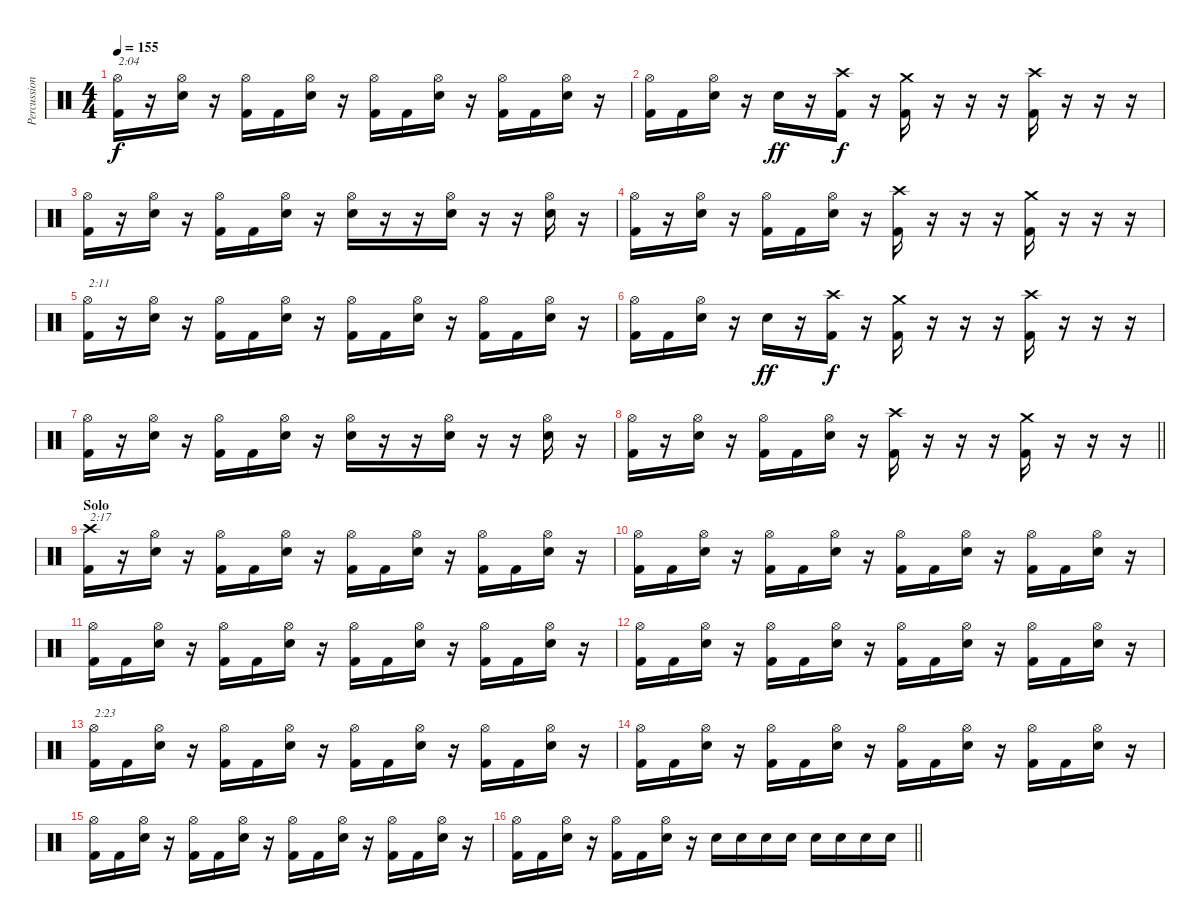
\track ("Percussion" "Percussion") {instrument percussion}
\staff {score}
\articulation defaults
\ts (4 4)
\tempo 155
\clef neutral
\ks c
("Hi-Hat (open)" "Kick (hit) 2").16{txt "2:04" dy f} r.16 ("Hi-Hat (open)" "Snare (hit) 2").16 r.16 ("Hi-Hat (open)" "Kick (hit) 2").16 "Kick (hit) 2".16 ("Hi-Hat (open)" "Snare (hit) 2").16 r.16 ("Hi-Hat (open)" "Kick (hit) 2").16 "Kick (hit) 2".16 ("Hi-Hat (open)" "Snare (hit) 2").16 r.16 ("Hi-Hat (open)" "Kick (hit) 2").16 "Kick (hit) 2".16 ("Hi-Hat (open)" "Snare (hit) 2").16 r.16 |
("Hi-Hat (open)" "Kick (hit) 2").16 "Kick (hit) 2".16 ("Hi-Hat (open)" "Snare (hit) 2").16 r.16 "Snare (hit) 2".16{dy ff} r.16 ("Crash high (hit)" "Kick (hit) 2").16{dy f} r.16 ("Crash medium (hit)" "Kick (hit) 2").16 r.16 r.16 r.16 ("Crash high (hit)" "Kick (hit) 2").16 r.16 r.16 r.16 |
("Hi-Hat (open)" "Kick (hit) 2").16 r.16 ("Hi-Hat (open)" "Snare (hit) 2").16 r.16 ("Hi-Hat (open)" "Kick (hit) 2").16 "Kick (hit) 2".16 ("Hi-Hat (open)" "Snare (hit) 2").16 r.16 ("Hi-Hat (open)" "Snare (hit) 2").16 r.16 r.16 ("Hi-Hat (open)" "Snare (hit) 2").16 r.16 r.16 ("Hi-Hat (open)" "Snare (hit) 2").16 r.16 |
("Hi-Hat (open)" "Kick (hit) 2").16 r.16 ("Hi-Hat (open)" "Snare (hit) 2").16 r.16 ("Hi-Hat (open)" "Kick (hit) 2").16 "Kick (hit) 2".16 ("Hi-Hat (open)" "Snare (hit) 2").16 r.16 ("Crash high (hit)" "Kick (hit) 2").16 r.16 r.16 r.16 ("Crash medium (hit)" "Kick (hit) 2").16 r.16 r.16 r.16 |
("Hi-Hat (open)" "Kick (hit) 2").16{txt "2:11"} r.16 ("Hi-Hat (open)" "Snare (hit) 2").16 r.16 ("Hi-Hat (open)" "Kick (hit) 2").16 "Kick (hit) 2".16 ("Hi-Hat (open)" "Snare (hit) 2").16 r.16 ("Hi-Hat (open)" "Kick (hit) 2").16 "Kick (hit) 2".16 ("Hi-Hat (open)" "Snare (hit) 2").16 r.16 ("Hi-Hat (open)" "Kick (hit) 2").16 "Kick (hit) 2".16 ("Hi-Hat (open)" "Snare (hit) 2").16 r.16 |
("Hi-Hat (open)" "Kick (hit) 2").16 "Kick (hit) 2".16 ("Hi-Hat (open)" "Snare (hit) 2").16 r.16 "Snare (hit) 2".16{dy ff} r.16 ("Crash high (hit)" "Kick (hit) 2").16{dy f} r.16 ("Crash medium (hit)" "Kick (hit) 2").16 r.16 r.16 r.16 ("Crash high (hit)" "Kick (hit) 2").16 r.16 r.16 r.16 |
("Hi-Hat (open)" "Kick (hit) 2").16 r.16 ("Hi-Hat (open)" "Snare (hit) 2").16 r.16 ("Hi-Hat (open)" "Kick (hit) 2").16 "Kick (hit) 2".16 ("Hi-Hat (open)" "Snare (hit) 2").16 r.16 ("Hi-Hat (open)" "Snare (hit) 2").16 r.16 r.16 ("Hi-Hat (open)" "Snare (hit) 2").16 r.16 r.16 ("Hi-Hat (open)" "Snare (hit) 2").16 r.16 |
\barLineRight lightlight
("Hi-Hat (open)" "Kick (hit) 2").16 r.16 ("Hi-Hat (open)" "Snare (hit) 2").16 r.16 ("Hi-Hat (open)" "Kick (hit) 2").16 "Kick (hit) 2".16 ("Hi-Hat (open)" "Snare (hit) 2").16 r.16 ("Crash high (hit)" "Kick (hit) 2").16 r.16 r.16 r.16 ("Crash medium (hit)" "Kick (hit) 2").16 r.16 r.16 r.16 |
\section ("" "Solo")
("Crash high (hit)" "Kick (hit) 2").16{txt "2:17"} r.16 ("Hi-Hat (open)" "Snare (hit) 2").16 r.16 ("Hi-Hat (open)" "Kick (hit) 2").16 "Kick (hit) 2".16 ("Hi-Hat (open)" "Snare (hit) 2").16 r.16 ("Hi-Hat (open)" "Kick (hit) 2").16 "Kick (hit) 2".16 ("Hi-Hat (open)" "Snare (hit) 2").16 r.16 ("Hi-Hat (open)" "Kick (hit) 2").16 "Kick (hit) 2".16 ("Hi-Hat (open)" "Snare (hit) 2").16 r.16 |
("Hi-Hat (open)" "Kick (hit) 2").16 "Kick (hit) 2".16 ("Hi-Hat (open)" "Snare (hit) 2").16 r.16 ("Hi-Hat (open)" "Kick (hit) 2").16 "Kick (hit) 2".16 ("Hi-Hat (open)" "Snare (hit) 2").16 r.16 ("Hi-Hat (open)" "Kick (hit) 2").16 "Kick (hit) 2".16 ("Hi-Hat (open)" "Snare (hit) 2").16 r.16 ("Hi-Hat (open)" "Kick (hit) 2").16 "Kick (hit) 2".16 ("Hi-Hat (open)" "Snare (hit) 2").16 r.16 |
("Hi-Hat (open)" "Kick (hit) 2").16 "Kick (hit) 2".16 ("Hi-Hat (open)" "Snare (hit) 2").16 r.16 ("Hi-Hat (open)" "Kick (hit) 2").16 "Kick (hit) 2".16 ("Hi-Hat (open)" "Snare (hit) 2").16 r.16 ("Hi-Hat (open)" "Kick (hit) 2").16 "Kick (hit) 2".16 ("Hi-Hat (open)" "Snare (hit) 2").16 r.16 ("Hi-Hat (open)" "Kick (hit) 2").16 "Kick (hit) 2".16 ("Hi-Hat (open)" "Snare (hit) 2").16 r.16 |
("Hi-Hat (open)" "Kick (hit) 2").16 "Kick (hit) 2".16 ("Hi-Hat (open)" "Snare (hit) 2").16 r.16 ("Hi-Hat (open)" "Kick (hit) 2").16 "Kick (hit) 2".16 ("Hi-Hat (open)" "Snare (hit) 2").16 r.16 ("Hi-Hat (open)" "Kick (hit) 2").16 "Kick (hit) 2".16 ("Hi-Hat (open)" "Snare (hit) 2").16 r.16 ("Hi-Hat (open)" "Kick (hit) 2").16 "Kick (hit) 2".16 ("Hi-Hat (open)" "Snare (hit) 2").16 r.16 |
("Hi-Hat (open)" "Kick (hit) 2").16{txt "2:23"} "Kick (hit) 2".16 ("Hi-Hat (open)" "Snare (hit) 2").16 r.16 ("Hi-Hat (open)" "Kick (hit) 2").16 "Kick (hit) 2".16 ("Hi-Hat (open)" "Snare (hit) 2").16 r.16 ("Hi-Hat (open)" "Kick (hit) 2").16 "Kick (hit) 2".16 ("Hi-Hat (open)" "Snare (hit) 2").16 r.16 ("Hi-Hat (open)" "Kick (hit) 2").16 "Kick (hit) 2".16 ("Hi-Hat (open)" "Snare (hit) 2").16 r.16 |
("Hi-Hat (open)" "Kick (hit) 2").16 "Kick (hit) 2".16 ("Hi-Hat (open)" "Snare (hit) 2").16 r.16 ("Hi-Hat (open)" "Kick (hit) 2").16 "Kick (hit) 2".16 ("Hi-Hat (open)" "Snare (hit) 2").16 r.16 ("Hi-Hat (open)" "Kick (hit) 2").16 "Kick (hit) 2".16 ("Hi-Hat (open)" "Snare (hit) 2").16 r.16 ("Hi-Hat (open)" "Kick (hit) 2").16 "Kick (hit) 2".16 ("Hi-Hat (open)" "Snare (hit) 2").16 r.16 |
("Hi-Hat (open)" "Kick (hit) 2").16 "Kick (hit) 2".16 ("Hi-Hat (open)" "Snare (hit) 2").16 r.16 ("Hi-Hat (open)" "Kick (hit) 2").16 "Kick (hit) 2".16 ("Hi-Hat (open)" "Snare (hit) 2").16 r.16 ("Hi-Hat (open)" "Kick (hit) 2").16 "Kick (hit) 2".16 ("Hi-Hat (open)" "Snare (hit) 2").16 r.16 ("Hi-Hat (open)" "Kick (hit) 2").16 "Kick (hit) 2".16 ("Hi-Hat (open)" "Snare (hit) 2").16 r.16 |
\barLineRight lightlight
("Hi-Hat (open)" "Kick (hit) 2").16 "Kick (hit) 2".16 ("Hi-Hat (open)" "Snare (hit) 2").16 r.16 ("Hi-Hat (open)" "Kick (hit) 2").16 "Kick (hit) 2".16 ("Hi-Hat (open)" "Snare (hit) 2").16 r.16 "Snare (hit) 2".16 "Snare (hit) 2".16 "Snare (hit) 2".16 "Snare (hit) 2".16 "Snare (hit) 2".16 "Snare (hit) 2".16 "Snare (hit) 2".16 "Snare (hit) 2".16
